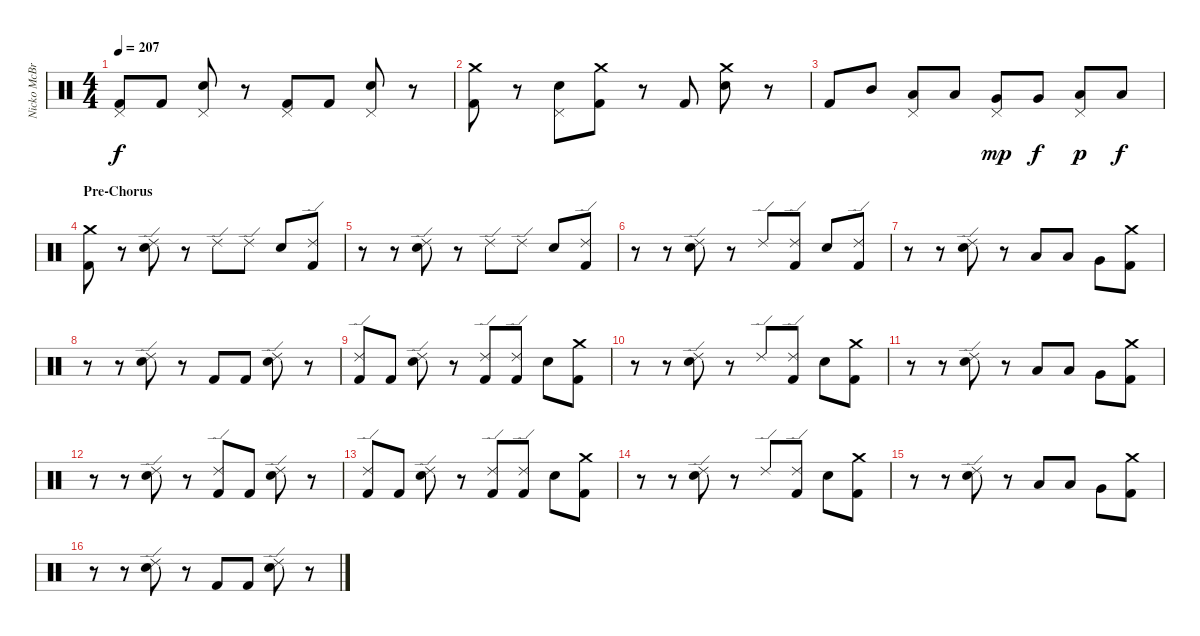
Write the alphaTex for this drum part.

\track ("Nicko McBrain" "Nicko McBr") {instrument percussion}
\staff {score}
\articulation defaults
\ts (4 4)
\tempo 207
\clef neutral
\ks c
("Pedal Hi-Hat (hit)" "Kick (hit) 2").8{dy f} "Kick (hit) 2".8 ("Pedal Hi-Hat (hit)" "Snare (hit) 2").8 r.8 ("Pedal Hi-Hat (hit)" "Kick (hit) 2").8 "Kick (hit) 2".8 ("Pedal Hi-Hat (hit)" "Snare (hit) 2").8 r.8 |
("Crash medium (hit)" "Kick (hit) 2").8 r.8 ("Pedal Hi-Hat (hit)" "Snare (hit) 2").8 ("Crash medium (hit)" "Kick (hit) 2").8 r.8 "Kick (hit) 2".8 ("Crash medium (hit)" "Snare (hit) 2").8 r.8 |
"Kick (hit) 2".8 "Mid Tom (hit)".8 ("Pedal Hi-Hat (hit)" "Low Tom (hit)").8 "Low Tom (hit)".8 ("Pedal Hi-Hat (hit)" "Very Low Tom (hit)").8{dy mp} "Very Low Tom (hit)".8{dy f} ("Pedal Hi-Hat (hit)" "Low Floor Tom (hit)").8{dy p} "Low Floor Tom (hit)".8{dy f} |
\section ("" "Pre-Chorus")
("Crash medium (hit)" "Kick (hit) 2").8 r.8 ("Ride (edge) 2" "Snare (hit) 2").8 r.8 "Ride (edge) 2".8 "Ride (edge) 2".8 "Snare (hit) 2".8 ("Ride (edge) 2" "Kick (hit) 2").8 |
r.8 r.8 ("Ride (edge) 2" "Snare (hit) 2").8 r.8 "Ride (edge) 2".8 "Ride (edge) 2".8 "Snare (hit) 2".8 ("Ride (edge) 2" "Kick (hit) 2").8 |
r.8 r.8 ("Ride (edge) 2" "Snare (hit) 2").8 r.8 "Ride (edge) 2".8 ("Ride (edge) 2" "Kick (hit) 2").8 "Snare (hit) 2".8 ("Ride (edge) 2" "Kick (hit) 2").8 |
r.8 r.8 ("Ride (edge) 2" "Snare (hit) 2").8 r.8 "Low Tom (hit)".8 "Low Tom (hit)".8 "Very Low Tom (hit)".8 ("Crash medium (hit)" "Kick (hit) 2").8 |
r.8 r.8 ("Ride (edge) 2" "Snare (hit) 2").8 r.8 "Kick (hit) 2".8 "Kick (hit) 2".8 ("Ride (edge) 2" "Snare (hit) 2").8 r.8 |
("Ride (edge) 2" "Kick (hit) 2").8 "Kick (hit) 2".8 ("Ride (edge) 2" "Snare (hit) 2").8 r.8 ("Ride (edge) 2" "Kick (hit) 2").8 ("Ride (edge) 2" "Kick (hit) 2").8 "Snare (hit) 2".8 ("Crash medium (hit)" "Kick (hit) 2").8 |
r.8 r.8 ("Ride (edge) 2" "Snare (hit) 2").8 r.8 "Ride (edge) 2".8 ("Ride (edge) 2" "Kick (hit) 2").8 "Snare (hit) 2".8 ("Crash medium (hit)" "Kick (hit) 2").8 |
r.8 r.8 ("Ride (edge) 2" "Snare (hit) 2").8 r.8 "Low Tom (hit)".8 "Low Tom (hit)".8 "Very Low Tom (hit)".8 ("Crash medium (hit)" "Kick (hit) 2").8 |
r.8 r.8 ("Ride (edge) 2" "Snare (hit) 2").8 r.8 ("Ride (edge) 2" "Kick (hit) 2").8 "Kick (hit) 2".8 ("Ride (edge) 2" "Snare (hit) 2").8 r.8 |
("Ride (edge) 2" "Kick (hit) 2").8 "Kick (hit) 2".8 ("Ride (edge) 2" "Snare (hit) 2").8 r.8 ("Ride (edge) 2" "Kick (hit) 2").8 ("Ride (edge) 2" "Kick (hit) 2").8 "Snare (hit) 2".8 ("Crash medium (hit)" "Kick (hit) 2").8 |
r.8 r.8 ("Ride (edge) 2" "Snare (hit) 2").8 r.8 "Ride (edge) 2".8 ("Ride (edge) 2" "Kick (hit) 2").8 "Snare (hit) 2".8 ("Crash medium (hit)" "Kick (hit) 2").8 |
r.8 r.8 ("Ride (edge) 2" "Snare (hit) 2").8 r.8 "Low Tom (hit)".8 "Low Tom (hit)".8 "Very Low Tom (hit)".8 ("Crash medium (hit)" "Kick (hit) 2").8 |
r.8 r.8 ("Ride (edge) 2" "Snare (hit) 2").8 r.8 "Kick (hit) 2".8 "Kick (hit) 2".8 ("Ride (edge) 2" "Snare (hit) 2").8 r.8
